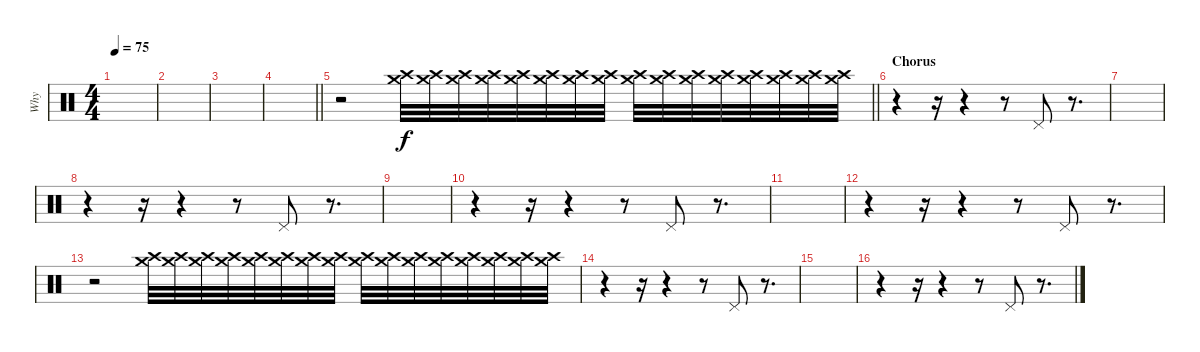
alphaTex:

\track ("Why" "Why") {instrument percussion}
\staff {score}
\articulation defaults
\ts (4 4)
\tempo 75
\clef neutral
\ks c
|
|
|
\barLineRight lightlight
|
\section ("" "")
\barLineRight lightlight
r.2 ("Crash medium (hit)" "Crash high (hit)").32{volume 13} ("Crash medium (hit)" "Crash high (hit)").32 ("Crash medium (hit)" "Crash high (hit)").32 ("Crash medium (hit)" "Crash high (hit)").32 ("Crash medium (hit)" "Crash high (hit)").32 ("Crash medium (hit)" "Crash high (hit)").32 ("Crash medium (hit)" "Crash high (hit)").32 ("Crash medium (hit)" "Crash high (hit)").32 ("Crash medium (hit)" "Crash high (hit)").32 ("Crash medium (hit)" "Crash high (hit)").32 ("Crash medium (hit)" "Crash high (hit)").32 ("Crash medium (hit)" "Crash high (hit)").32 ("Crash medium (hit)" "Crash high (hit)").32 ("Crash medium (hit)" "Crash high (hit)").32 ("Crash medium (hit)" "Crash high (hit)").32 ("Crash medium (hit)" "Crash high (hit)").32 |
\section ("" "Chorus")
r.4{volume 13} r.16 r.4 r.8 "Pedal Hi-Hat (hit)".8 r.8{d} |
|
r.4 r.16 r.4 r.8 "Pedal Hi-Hat (hit)".8 r.8{d} |
|
r.4 r.16 r.4 r.8 "Pedal Hi-Hat (hit)".8 r.8{d} |
|
r.4 r.16 r.4 r.8 "Pedal Hi-Hat (hit)".8 r.8{d volume 2} |
r.2 ("Crash medium (hit)" "Crash high (hit)").32{volume 13} ("Crash medium (hit)" "Crash high (hit)").32 ("Crash medium (hit)" "Crash high (hit)").32 ("Crash medium (hit)" "Crash high (hit)").32 ("Crash medium (hit)" "Crash high (hit)").32 ("Crash medium (hit)" "Crash high (hit)").32 ("Crash medium (hit)" "Crash high (hit)").32 ("Crash medium (hit)" "Crash high (hit)").32 ("Crash medium (hit)" "Crash high (hit)").32 ("Crash medium (hit)" "Crash high (hit)").32 ("Crash medium (hit)" "Crash high (hit)").32 ("Crash medium (hit)" "Crash high (hit)").32 ("Crash medium (hit)" "Crash high (hit)").32 ("Crash medium (hit)" "Crash high (hit)").32 ("Crash medium (hit)" "Crash high (hit)").32 ("Crash medium (hit)" "Crash high (hit)").32 |
r.4 r.16 r.4 r.8 "Pedal Hi-Hat (hit)".8 r.8{d} |
|
r.4 r.16 r.4 r.8 "Pedal Hi-Hat (hit)".8 r.8{d}
